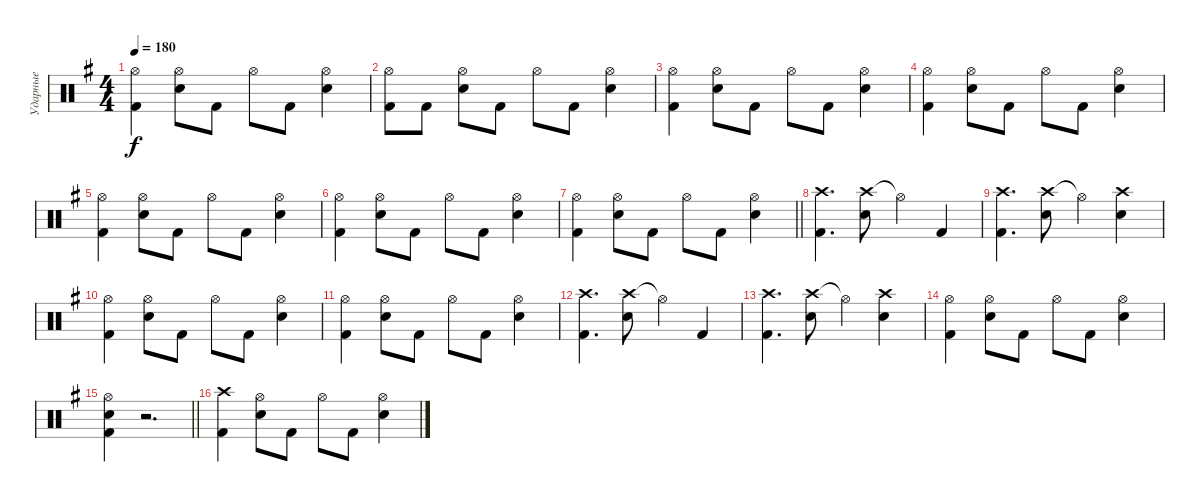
\track ("Ударные" "Ударные") {instrument percussion}
\staff {score}
\articulation defaults
\ts (4 4)
\tempo 180
\clef neutral
\ks g
("Hi-Hat (open)" "Kick (hit) 2").4{dy f} ("Hi-Hat (open)" "Snare (hit) 2").8 "Kick (hit) 2".8 "Hi-Hat (open)".8 "Kick (hit) 2".8 ("Hi-Hat (open)" "Snare (hit) 2").4 |
("Hi-Hat (open)" "Kick (hit) 2").8 "Kick (hit) 2".8 ("Hi-Hat (open)" "Snare (hit) 2").8 "Kick (hit) 2".8 "Hi-Hat (open)".8 "Kick (hit) 2".8 ("Hi-Hat (open)" "Snare (hit) 2").4 |
("Hi-Hat (open)" "Kick (hit) 2").4 ("Hi-Hat (open)" "Snare (hit) 2").8 "Kick (hit) 2".8 "Hi-Hat (open)".8 "Kick (hit) 2".8 ("Hi-Hat (open)" "Snare (hit) 2").4 |
("Hi-Hat (open)" "Kick (hit) 2").4 ("Hi-Hat (open)" "Snare (hit) 2").8 "Kick (hit) 2".8 "Hi-Hat (open)".8 "Kick (hit) 2".8 ("Hi-Hat (open)" "Snare (hit) 2").4 |
("Hi-Hat (open)" "Kick (hit) 2").4 ("Hi-Hat (open)" "Snare (hit) 2").8 "Kick (hit) 2".8 "Hi-Hat (open)".8 "Kick (hit) 2".8 ("Hi-Hat (open)" "Snare (hit) 2").4 |
("Hi-Hat (open)" "Kick (hit) 2").4 ("Hi-Hat (open)" "Snare (hit) 2").8 "Kick (hit) 2".8 "Hi-Hat (open)".8 "Kick (hit) 2".8 ("Hi-Hat (open)" "Snare (hit) 2").4 |
\barLineRight lightlight
("Hi-Hat (open)" "Kick (hit) 2").4 ("Hi-Hat (open)" "Snare (hit) 2").8 "Kick (hit) 2".8 "Hi-Hat (open)".8 "Kick (hit) 2".8 ("Hi-Hat (open)" "Snare (hit) 2").4 |
("Crash high (hit)" "Kick (hit) 2").4{d} ("Crash high (hit)" "Snare (hit) 2").8 "Hi-Hat (open)"{t}.4 "Kick (hit) 2".4 |
("Crash high (hit)" "Kick (hit) 2").4{d} ("Crash high (hit)" "Snare (hit) 2").8 "Hi-Hat (open)"{t}.4 ("Crash high (hit)" "Snare (hit) 2").4 |
("Hi-Hat (open)" "Kick (hit) 2").4 ("Hi-Hat (open)" "Snare (hit) 2").8 "Kick (hit) 2".8 "Hi-Hat (open)".8 "Kick (hit) 2".8 ("Hi-Hat (open)" "Snare (hit) 2").4 |
("Hi-Hat (open)" "Kick (hit) 2").4 ("Hi-Hat (open)" "Snare (hit) 2").8 "Kick (hit) 2".8 "Hi-Hat (open)".8 "Kick (hit) 2".8 ("Hi-Hat (open)" "Snare (hit) 2").4 |
("Crash high (hit)" "Kick (hit) 2").4{d} ("Crash high (hit)" "Snare (hit) 2").8 "Hi-Hat (open)"{t}.4 "Kick (hit) 2".4 |
("Crash high (hit)" "Kick (hit) 2").4{d} ("Crash high (hit)" "Snare (hit) 2").8 "Hi-Hat (open)"{t}.4 ("Crash high (hit)" "Snare (hit) 2").4 |
("Hi-Hat (open)" "Kick (hit) 2").4 ("Hi-Hat (open)" "Snare (hit) 2").8 "Kick (hit) 2".8 "Hi-Hat (open)".8 "Kick (hit) 2".8 ("Hi-Hat (open)" "Snare (hit) 2").4 |
\barLineRight lightlight
("Hi-Hat (open)" "Snare (hit) 2" "Kick (hit) 2").4 r.2{d} |
("Crash high (hit)" "Kick (hit) 2").4 ("Hi-Hat (open)" "Snare (hit) 2").8 "Kick (hit) 2".8 "Hi-Hat (open)".8 "Kick (hit) 2".8 ("Hi-Hat (open)" "Snare (hit) 2").4
